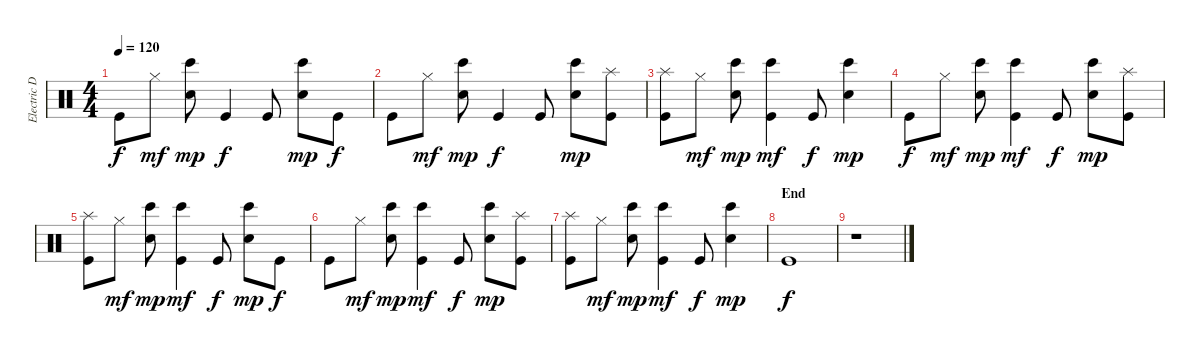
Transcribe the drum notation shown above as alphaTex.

\track ("Electric Drums" "Electric D") {instrument percussion}
\staff {score}
\articulation defaults
\ts (4 4)
\tempo 120
\clef neutral
\ks c "Kick (hit)".8{dy f} "Hi-Hat (closed)".8{dy mf}
("Bongo High (hit)" "Electric Snare (hit)").8{dy mp} "Kick (hit)".4{dy f} "Kick (hit)".8 ("Bongo High (hit)" "Electric Snare (hit)").8{dy mp} "Kick (hit)".8{dy f} |
"Kick (hit)".8 "Hi-Hat (closed)".8{dy mf} ("Bongo High (hit)" "Electric Snare (hit)").8{dy mp} "Kick (hit)".4{dy f} "Kick (hit)".8 ("Bongo High (hit)" "Electric Snare (hit)").8{dy mp} ("Splash (hit)" "Kick (hit)").8 |
("Splash (hit)" "Kick (hit)").8 "Hi-Hat (closed)".8{dy mf} ("Bongo High (hit)" "Electric Snare (hit)").8{dy mp} ("Bongo High (hit)" "Kick (hit)").4{dy mf} "Kick (hit)".8{dy f} ("Bongo High (hit)" "Electric Snare (hit)").4{dy mp} |
"Kick (hit)".8{dy f} "Hi-Hat (closed)".8{dy mf} ("Bongo High (hit)" "Electric Snare (hit)").8{dy mp} ("Bongo High (hit)" "Kick (hit)").4{dy mf} "Kick (hit)".8{dy f} ("Bongo High (hit)" "Electric Snare (hit)").8{dy mp} ("Splash (hit)" "Kick (hit)").8 |
("Splash (hit)" "Kick (hit)").8 "Hi-Hat (closed)".8{dy mf} ("Bongo High (hit)" "Electric Snare (hit)").8{dy mp} ("Bongo High (hit)" "Kick (hit)").4{dy mf} "Kick (hit)".8{dy f} ("Bongo High (hit)" "Electric Snare (hit)").8{dy mp} "Kick (hit)".8{dy f} |
"Kick (hit)".8 "Hi-Hat (closed)".8{dy mf} ("Bongo High (hit)" "Electric Snare (hit)").8{dy mp} ("Bongo High (hit)" "Kick (hit)").4{dy mf} "Kick (hit)".8{dy f} ("Bongo High (hit)" "Electric Snare (hit)").8{dy mp} ("Splash (hit)" "Kick (hit)").8 |
("Splash (hit)" "Kick (hit)").8 "Hi-Hat (closed)".8{dy mf} ("Bongo High (hit)" "Electric Snare (hit)").8{dy mp} ("Bongo High (hit)" "Kick (hit)").4{dy mf} "Kick (hit)".8{dy f} ("Bongo High (hit)" "Electric Snare (hit)").4{dy mp} |
\section ("" "End")
"Kick (hit)".1{dy f} |
r.1
